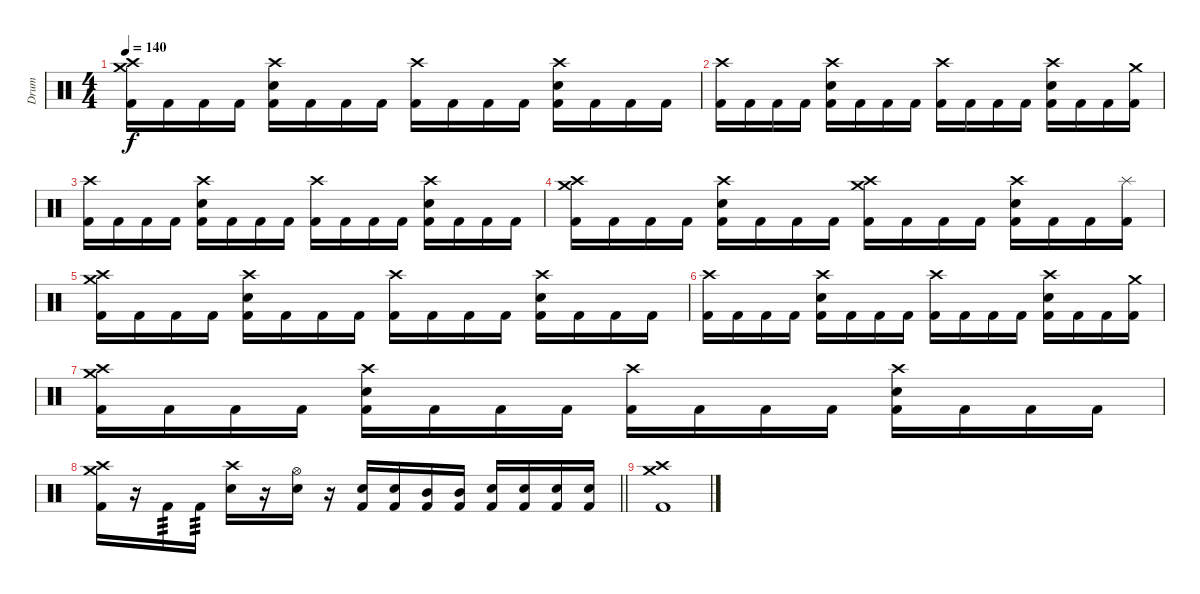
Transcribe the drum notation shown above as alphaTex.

\track ("Drum" "Drum") {instrument percussion}
\staff {score}
\articulation defaults
\ts (4 4)
\tempo 140
\clef neutral
\ks c
("Crash high (hit)" "Crash medium (hit)" "Kick (hit) 2").16{dy f} "Kick (hit) 2".16 "Kick (hit) 2".16 "Kick (hit) 2".16 ("Crash high (hit)" "Snare (hit) 2" "Kick (hit) 2").16 "Kick (hit) 2".16 "Kick (hit) 2".16 "Kick (hit) 2".16 ("Crash high (hit)" "Kick (hit) 2").16 "Kick (hit) 2".16 "Kick (hit) 2".16 "Kick (hit) 2".16 ("Crash high (hit)" "Snare (hit) 2" "Kick (hit) 2").16 "Kick (hit) 2".16 "Kick (hit) 2".16 "Kick (hit) 2".16 |
("Crash high (hit)" "Kick (hit) 2").16 "Kick (hit) 2".16 "Kick (hit) 2".16 "Kick (hit) 2".16 ("Crash high (hit)" "Snare (hit) 2" "Kick (hit) 2").16 "Kick (hit) 2".16 "Kick (hit) 2".16 "Kick (hit) 2".16 ("Crash high (hit)" "Kick (hit) 2").16 "Kick (hit) 2".16 "Kick (hit) 2".16 "Kick (hit) 2".16 ("Crash high (hit)" "Snare (hit) 2" "Kick (hit) 2").16 "Kick (hit) 2".16 "Kick (hit) 2".16 ("Crash medium (hit)" "Kick (hit) 2").16 |
("Crash high (hit)" "Kick (hit) 2").16 "Kick (hit) 2".16 "Kick (hit) 2".16 "Kick (hit) 2".16 ("Crash high (hit)" "Snare (hit) 2" "Kick (hit) 2").16 "Kick (hit) 2".16 "Kick (hit) 2".16 "Kick (hit) 2".16 ("Crash high (hit)" "Kick (hit) 2").16 "Kick (hit) 2".16 "Kick (hit) 2".16 "Kick (hit) 2".16 ("Crash high (hit)" "Snare (hit) 2" "Kick (hit) 2").16 "Kick (hit) 2".16 "Kick (hit) 2".16 "Kick (hit) 2".16 |
("Crash high (hit)" "Crash medium (hit)" "Kick (hit) 2").16 "Kick (hit) 2".16 "Kick (hit) 2".16 "Kick (hit) 2".16 ("Crash high (hit)" "Snare (hit) 2" "Kick (hit) 2").16 "Kick (hit) 2".16 "Kick (hit) 2".16 "Kick (hit) 2".16 ("Crash high (hit)" "Crash medium (hit)" "Kick (hit) 2").16 "Kick (hit) 2".16 "Kick (hit) 2".16 "Kick (hit) 2".16 ("Crash high (hit)" "Snare (hit) 2" "Kick (hit) 2").16 "Kick (hit) 2".16 "Kick (hit) 2".16 ("Splash (hit)" "Kick (hit) 2").16 |
("Crash high (hit)" "Crash medium (hit)" "Kick (hit) 2").16 "Kick (hit) 2".16 "Kick (hit) 2".16 "Kick (hit) 2".16 ("Crash high (hit)" "Snare (hit) 2" "Kick (hit) 2").16 "Kick (hit) 2".16 "Kick (hit) 2".16 "Kick (hit) 2".16 ("Crash high (hit)" "Kick (hit) 2").16 "Kick (hit) 2".16 "Kick (hit) 2".16 "Kick (hit) 2".16 ("Crash high (hit)" "Snare (hit) 2" "Kick (hit) 2").16 "Kick (hit) 2".16 "Kick (hit) 2".16 "Kick (hit) 2".16 |
("Crash high (hit)" "Kick (hit) 2").16 "Kick (hit) 2".16 "Kick (hit) 2".16 "Kick (hit) 2".16 ("Crash high (hit)" "Snare (hit) 2" "Kick (hit) 2").16 "Kick (hit) 2".16 "Kick (hit) 2".16 "Kick (hit) 2".16 ("Crash high (hit)" "Kick (hit) 2").16 "Kick (hit) 2".16 "Kick (hit) 2".16 "Kick (hit) 2".16 ("Crash high (hit)" "Snare (hit) 2" "Kick (hit) 2").16 "Kick (hit) 2".16 "Kick (hit) 2".16 ("Crash medium (hit)" "Kick (hit) 2").16 |
("Crash high (hit)" "Crash medium (hit)" "Kick (hit) 2").16 "Kick (hit) 2".16 "Kick (hit) 2".16 "Kick (hit) 2".16 ("Crash high (hit)" "Snare (hit) 2" "Kick (hit) 2").16 "Kick (hit) 2".16 "Kick (hit) 2".16 "Kick (hit) 2".16 ("Crash high (hit)" "Kick (hit) 2").16 "Kick (hit) 2".16 "Kick (hit) 2".16 "Kick (hit) 2".16 ("Crash high (hit)" "Snare (hit) 2" "Kick (hit) 2").16 "Kick (hit) 2".16 "Kick (hit) 2".16 "Kick (hit) 2".16 |
\barLineRight lightlight
("Crash high (hit)" "Crash medium (hit)" "Kick (hit) 2").16 r.16 "Kick (hit) 2".16{tp 3} "Kick (hit) 2".16{tp 3} ("Crash high (hit)" "Snare (hit) 2").16 r.16 ("Hi-Hat (open)" "Snare (hit) 2").16 r.16 ("Snare (hit) 2" "Kick (hit) 2").16 ("Snare (hit) 2" "Kick (hit) 2").16 ("Mid Tom (hit)" "Kick (hit) 2").16 ("Mid Tom (hit)" "Kick (hit) 2").16 ("Snare (hit) 2" "Kick (hit) 2").16 ("Snare (hit) 2" "Kick (hit) 2").16 ("Snare (hit) 2" "Kick (hit) 2").16 ("Snare (hit) 2" "Kick (hit) 2").16 |
\section ("" "")
("Crash high (hit)" "Crash medium (hit)" "Kick (hit) 2").1
